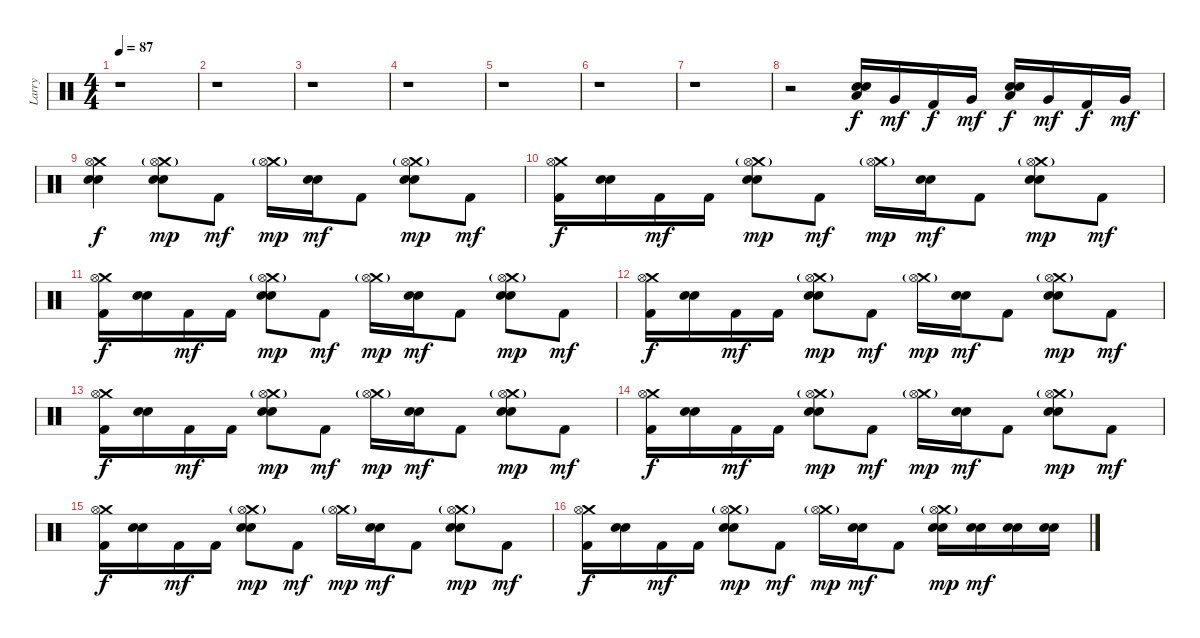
\track ("Larry" "Larry") {instrument percussion}
\staff {score}
\articulation defaults
\ts (4 4)
\tempo 87
\clef neutral
\ks c
r.1{dy f} |
r.1 |
r.1 |
r.1 |
r.1 |
r.1 |
r.1 |
r.2 ("Low Tom (hit)" "Electric Snare (hit)" "Snare (hit) 2").16 "Very Low Tom (hit)".16{dy mf} "Kick (hit) 2".16{dy f} "Very Low Tom (hit)".16{dy mf} ("Low Tom (hit)" "Electric Snare (hit)" "Snare (hit) 2").16{dy f} "Very Low Tom (hit)".16{dy mf} "Kick (hit) 2".16{dy f} "Very Low Tom (hit)".16{dy mf} |
("Crash medium (hit)" "Snare (hit) 2" "Electric Snare (hit)" "Hi-Hat (open)").4{dy f} ("Crash medium (hit)"{g} "Snare (hit) 2" "Electric Snare (hit)" "Hi-Hat (open)"{g}).8{dy mp} "Kick (hit) 2".8{dy mf} ("Crash medium (hit)"{g} "Hi-Hat (open)"{g}).16{dy mp} ("Snare (hit) 2" "Electric Snare (hit)").16{dy mf} "Kick (hit) 2".8 ("Crash medium (hit)"{g} "Snare (hit) 2" "Electric Snare (hit)" "Hi-Hat (open)"{g}).8{dy mp} "Kick (hit) 2".8{dy mf} |
("Crash medium (hit)" "Kick (hit) 2" "Hi-Hat (open)").16{dy f} ("Snare (hit) 2" "Electric Snare (hit)").16 "Kick (hit) 2".16{dy mf} "Kick (hit) 2".16 ("Crash medium (hit)"{g} "Snare (hit) 2" "Electric Snare (hit)" "Hi-Hat (open)"{g}).8{dy mp} "Kick (hit) 2".8{dy mf} ("Crash medium (hit)"{g} "Hi-Hat (open)"{g}).16{dy mp} ("Snare (hit) 2" "Electric Snare (hit)").16{dy mf} "Kick (hit) 2".8 ("Crash medium (hit)"{g} "Snare (hit) 2" "Electric Snare (hit)" "Hi-Hat (open)"{g}).8{dy mp} "Kick (hit) 2".8{dy mf} |
("Crash medium (hit)" "Kick (hit) 2" "Hi-Hat (open)").16{dy f} ("Snare (hit) 2" "Electric Snare (hit)").16 "Kick (hit) 2".16{dy mf} "Kick (hit) 2".16 ("Crash medium (hit)"{g} "Snare (hit) 2" "Electric Snare (hit)" "Hi-Hat (open)"{g}).8{dy mp} "Kick (hit) 2".8{dy mf} ("Crash medium (hit)"{g} "Hi-Hat (open)"{g}).16{dy mp} ("Snare (hit) 2" "Electric Snare (hit)").16{dy mf} "Kick (hit) 2".8 ("Crash medium (hit)"{g} "Snare (hit) 2" "Electric Snare (hit)" "Hi-Hat (open)"{g}).8{dy mp} "Kick (hit) 2".8{dy mf} |
("Crash medium (hit)" "Kick (hit) 2" "Hi-Hat (open)").16{dy f} ("Snare (hit) 2" "Electric Snare (hit)").16 "Kick (hit) 2".16{dy mf} "Kick (hit) 2".16 ("Crash medium (hit)"{g} "Snare (hit) 2" "Electric Snare (hit)" "Hi-Hat (open)"{g}).8{dy mp} "Kick (hit) 2".8{dy mf} ("Crash medium (hit)"{g} "Hi-Hat (open)"{g}).16{dy mp} ("Snare (hit) 2" "Electric Snare (hit)").16{dy mf} "Kick (hit) 2".8 ("Crash medium (hit)"{g} "Snare (hit) 2" "Electric Snare (hit)" "Hi-Hat (open)"{g}).8{dy mp} "Kick (hit) 2".8{dy mf} |
("Crash medium (hit)" "Kick (hit) 2" "Hi-Hat (open)").16{dy f} ("Snare (hit) 2" "Electric Snare (hit)").16 "Kick (hit) 2".16{dy mf} "Kick (hit) 2".16 ("Crash medium (hit)"{g} "Snare (hit) 2" "Electric Snare (hit)" "Hi-Hat (open)"{g}).8{dy mp} "Kick (hit) 2".8{dy mf} ("Crash medium (hit)"{g} "Hi-Hat (open)"{g}).16{dy mp} ("Snare (hit) 2" "Electric Snare (hit)").16{dy mf} "Kick (hit) 2".8 ("Crash medium (hit)"{g} "Snare (hit) 2" "Electric Snare (hit)" "Hi-Hat (open)"{g}).8{dy mp} "Kick (hit) 2".8{dy mf} |
("Crash medium (hit)" "Kick (hit) 2" "Hi-Hat (open)").16{dy f} ("Snare (hit) 2" "Electric Snare (hit)").16 "Kick (hit) 2".16{dy mf} "Kick (hit) 2".16 ("Crash medium (hit)"{g} "Snare (hit) 2" "Electric Snare (hit)" "Hi-Hat (open)"{g}).8{dy mp} "Kick (hit) 2".8{dy mf} ("Crash medium (hit)"{g} "Hi-Hat (open)"{g}).16{dy mp} ("Snare (hit) 2" "Electric Snare (hit)").16{dy mf} "Kick (hit) 2".8 ("Crash medium (hit)"{g} "Snare (hit) 2" "Electric Snare (hit)" "Hi-Hat (open)"{g}).8{dy mp} "Kick (hit) 2".8{dy mf} |
("Crash medium (hit)" "Kick (hit) 2" "Hi-Hat (open)").16{dy f} ("Snare (hit) 2" "Electric Snare (hit)").16 "Kick (hit) 2".16{dy mf} "Kick (hit) 2".16 ("Crash medium (hit)"{g} "Snare (hit) 2" "Electric Snare (hit)" "Hi-Hat (open)"{g}).8{dy mp} "Kick (hit) 2".8{dy mf} ("Crash medium (hit)"{g} "Hi-Hat (open)"{g}).16{dy mp} ("Snare (hit) 2" "Electric Snare (hit)").16{dy mf} "Kick (hit) 2".8 ("Crash medium (hit)"{g} "Snare (hit) 2" "Electric Snare (hit)" "Hi-Hat (open)"{g}).8{dy mp} "Kick (hit) 2".8{dy mf} |
("Crash medium (hit)" "Kick (hit) 2" "Hi-Hat (open)").16{dy f} ("Snare (hit) 2" "Electric Snare (hit)").16 "Kick (hit) 2".16{dy mf} "Kick (hit) 2".16 ("Crash medium (hit)"{g} "Snare (hit) 2" "Electric Snare (hit)" "Hi-Hat (open)"{g}).8{dy mp} "Kick (hit) 2".8{dy mf} ("Crash medium (hit)"{g} "Hi-Hat (open)"{g}).16{dy mp} ("Snare (hit) 2" "Electric Snare (hit)").16{dy mf} "Kick (hit) 2".8 ("Crash medium (hit)"{g} "Snare (hit) 2" "Electric Snare (hit)" "Hi-Hat (open)"{g}).16{dy mp} ("Snare (hit) 2" "Electric Snare (hit)").16{dy mf} ("Snare (hit) 2" "Electric Snare (hit)").16 ("Snare (hit) 2" "Electric Snare (hit)").16
